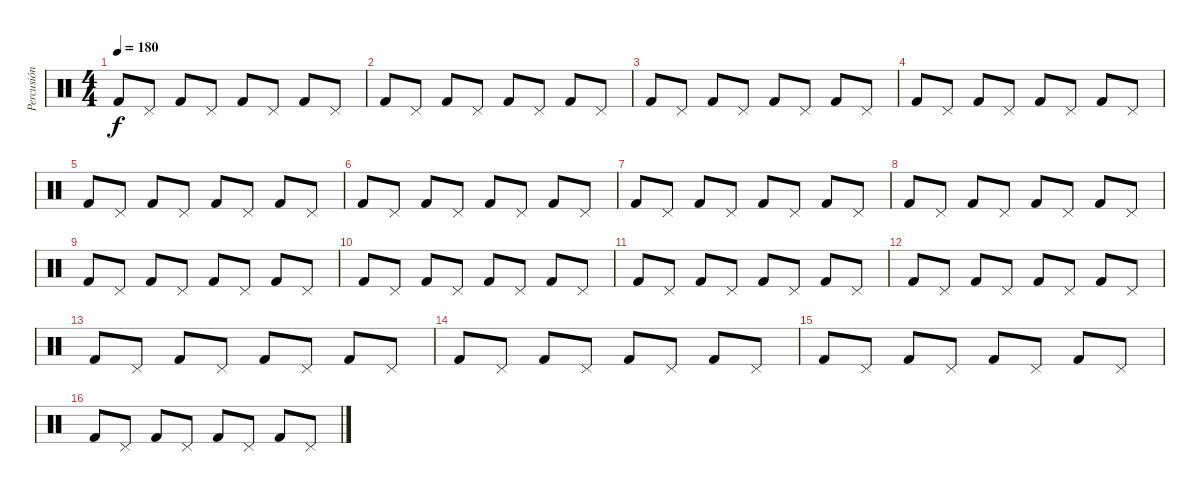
\track ("Percusión" "Percusión") {instrument percussion}
\staff {score}
\articulation defaults
\ts (4 4)
\tempo 180
\clef neutral
\ks c "Kick (hit) 2".8{dy f} "Pedal Hi-Hat (hit)".8 "Kick (hit) 2".8 "Pedal Hi-Hat (hit)".8 "Kick (hit) 2".8 "Pedal Hi-Hat (hit)".8 "Kick (hit) 2".8 "Pedal Hi-Hat (hit)".8
|
"Kick (hit) 2".8 "Pedal Hi-Hat (hit)".8 "Kick (hit) 2".8 "Pedal Hi-Hat (hit)".8 "Kick (hit) 2".8 "Pedal Hi-Hat (hit)".8 "Kick (hit) 2".8 "Pedal Hi-Hat (hit)".8 |
"Kick (hit) 2".8 "Pedal Hi-Hat (hit)".8 "Kick (hit) 2".8 "Pedal Hi-Hat (hit)".8 "Kick (hit) 2".8 "Pedal Hi-Hat (hit)".8 "Kick (hit) 2".8 "Pedal Hi-Hat (hit)".8 |
"Kick (hit) 2".8 "Pedal Hi-Hat (hit)".8 "Kick (hit) 2".8 "Pedal Hi-Hat (hit)".8 "Kick (hit) 2".8 "Pedal Hi-Hat (hit)".8 "Kick (hit) 2".8 "Pedal Hi-Hat (hit)".8 |
"Kick (hit) 2".8 "Pedal Hi-Hat (hit)".8 "Kick (hit) 2".8 "Pedal Hi-Hat (hit)".8 "Kick (hit) 2".8 "Pedal Hi-Hat (hit)".8 "Kick (hit) 2".8 "Pedal Hi-Hat (hit)".8 |
"Kick (hit) 2".8 "Pedal Hi-Hat (hit)".8 "Kick (hit) 2".8 "Pedal Hi-Hat (hit)".8 "Kick (hit) 2".8 "Pedal Hi-Hat (hit)".8 "Kick (hit) 2".8 "Pedal Hi-Hat (hit)".8 |
"Kick (hit) 2".8 "Pedal Hi-Hat (hit)".8 "Kick (hit) 2".8 "Pedal Hi-Hat (hit)".8 "Kick (hit) 2".8 "Pedal Hi-Hat (hit)".8 "Kick (hit) 2".8 "Pedal Hi-Hat (hit)".8 |
"Kick (hit) 2".8 "Pedal Hi-Hat (hit)".8 "Kick (hit) 2".8 "Pedal Hi-Hat (hit)".8 "Kick (hit) 2".8 "Pedal Hi-Hat (hit)".8 "Kick (hit) 2".8 "Pedal Hi-Hat (hit)".8 |
"Kick (hit) 2".8 "Pedal Hi-Hat (hit)".8 "Kick (hit) 2".8 "Pedal Hi-Hat (hit)".8 "Kick (hit) 2".8 "Pedal Hi-Hat (hit)".8 "Kick (hit) 2".8 "Pedal Hi-Hat (hit)".8 |
"Kick (hit) 2".8 "Pedal Hi-Hat (hit)".8 "Kick (hit) 2".8 "Pedal Hi-Hat (hit)".8 "Kick (hit) 2".8 "Pedal Hi-Hat (hit)".8 "Kick (hit) 2".8 "Pedal Hi-Hat (hit)".8 |
"Kick (hit) 2".8 "Pedal Hi-Hat (hit)".8 "Kick (hit) 2".8 "Pedal Hi-Hat (hit)".8 "Kick (hit) 2".8 "Pedal Hi-Hat (hit)".8 "Kick (hit) 2".8 "Pedal Hi-Hat (hit)".8 |
"Kick (hit) 2".8 "Pedal Hi-Hat (hit)".8 "Kick (hit) 2".8 "Pedal Hi-Hat (hit)".8 "Kick (hit) 2".8 "Pedal Hi-Hat (hit)".8 "Kick (hit) 2".8 "Pedal Hi-Hat (hit)".8 |
"Kick (hit) 2".8 "Pedal Hi-Hat (hit)".8 "Kick (hit) 2".8 "Pedal Hi-Hat (hit)".8 "Kick (hit) 2".8 "Pedal Hi-Hat (hit)".8 "Kick (hit) 2".8 "Pedal Hi-Hat (hit)".8 |
"Kick (hit) 2".8 "Pedal Hi-Hat (hit)".8 "Kick (hit) 2".8 "Pedal Hi-Hat (hit)".8 "Kick (hit) 2".8 "Pedal Hi-Hat (hit)".8 "Kick (hit) 2".8 "Pedal Hi-Hat (hit)".8 |
"Kick (hit) 2".8 "Pedal Hi-Hat (hit)".8 "Kick (hit) 2".8 "Pedal Hi-Hat (hit)".8 "Kick (hit) 2".8 "Pedal Hi-Hat (hit)".8 "Kick (hit) 2".8 "Pedal Hi-Hat (hit)".8 |
"Kick (hit) 2".8 "Pedal Hi-Hat (hit)".8 "Kick (hit) 2".8 "Pedal Hi-Hat (hit)".8 "Kick (hit) 2".8 "Pedal Hi-Hat (hit)".8 "Kick (hit) 2".8 "Pedal Hi-Hat (hit)".8
